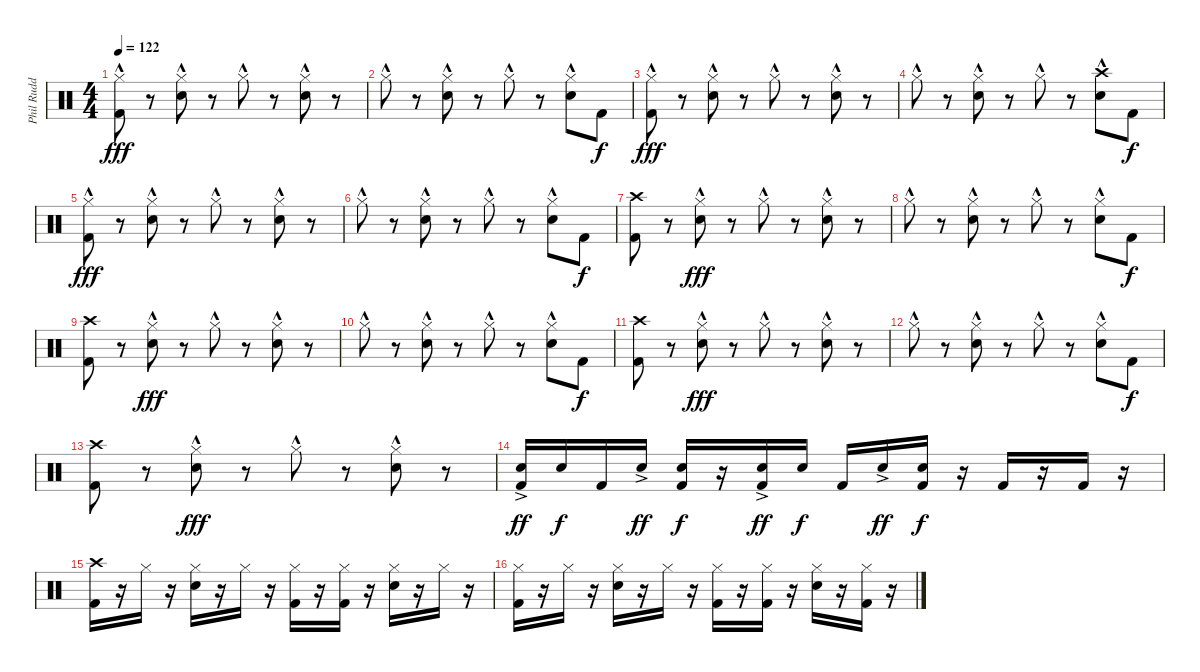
\track ("Phil Rudd" "Phil Rudd") {instrument percussion}
\staff {score}
\articulation defaults
\ts (4 4)
\tempo 122
\clef neutral
\ks c
("Hi-Hat (closed)"{hac} "Kick (hit) 2").8{dy fff} r.8 ("Hi-Hat (closed)"{hac} "Snare (hit) 2").8 r.8 "Hi-Hat (closed)"{hac}.8 r.8 ("Hi-Hat (closed)"{hac} "Snare (hit) 2").8 r.8 |
"Hi-Hat (closed)"{hac}.8 r.8 ("Hi-Hat (closed)"{hac} "Snare (hit) 2").8 r.8 "Hi-Hat (closed)"{hac}.8 r.8 ("Hi-Hat (closed)"{hac} "Snare (hit) 2").8 "Kick (hit) 2".8{dy f} |
("Hi-Hat (closed)"{hac} "Kick (hit) 2").8{dy fff} r.8 ("Hi-Hat (closed)"{hac} "Snare (hit) 2").8 r.8 "Hi-Hat (closed)"{hac}.8 r.8 ("Hi-Hat (closed)"{hac} "Snare (hit) 2").8 r.8 |
"Hi-Hat (closed)"{hac}.8 r.8 ("Hi-Hat (closed)"{hac} "Snare (hit) 2").8 r.8 "Hi-Hat (closed)"{hac}.8 r.8 ("Crash high (hit)"{hac} "Snare (hit) 2").8 "Kick (hit) 2".8{dy f} |
("Hi-Hat (closed)"{hac} "Kick (hit) 2").8{dy fff} r.8 ("Hi-Hat (closed)"{hac} "Snare (hit) 2").8 r.8 "Hi-Hat (closed)"{hac}.8 r.8 ("Hi-Hat (closed)"{hac} "Snare (hit) 2").8 r.8 |
"Hi-Hat (closed)"{hac}.8 r.8 ("Hi-Hat (closed)"{hac} "Snare (hit) 2").8 r.8 "Hi-Hat (closed)"{hac}.8 r.8 ("Hi-Hat (closed)"{hac} "Snare (hit) 2").8 "Kick (hit) 2".8{dy f} |
("Crash high (hit)" "Kick (hit) 2").8 r.8 ("Hi-Hat (closed)"{hac} "Snare (hit) 2").8{dy fff} r.8 "Hi-Hat (closed)"{hac}.8 r.8 ("Hi-Hat (closed)"{hac} "Snare (hit) 2").8 r.8 |
"Hi-Hat (closed)"{hac}.8 r.8 ("Hi-Hat (closed)"{hac} "Snare (hit) 2").8 r.8 "Hi-Hat (closed)"{hac}.8 r.8 ("Hi-Hat (closed)"{hac} "Snare (hit) 2").8 "Kick (hit) 2".8{dy f} |
("Crash high (hit)" "Kick (hit) 2").8 r.8 ("Hi-Hat (closed)"{hac} "Snare (hit) 2").8{dy fff} r.8 "Hi-Hat (closed)"{hac}.8 r.8 ("Hi-Hat (closed)"{hac} "Snare (hit) 2").8 r.8 |
"Hi-Hat (closed)"{hac}.8 r.8 ("Hi-Hat (closed)"{hac} "Snare (hit) 2").8 r.8 "Hi-Hat (closed)"{hac}.8 r.8 ("Hi-Hat (closed)"{hac} "Snare (hit) 2").8 "Kick (hit) 2".8{dy f} |
("Crash high (hit)" "Kick (hit) 2").8 r.8 ("Hi-Hat (closed)"{hac} "Snare (hit) 2").8{dy fff} r.8 "Hi-Hat (closed)"{hac}.8 r.8 ("Hi-Hat (closed)"{hac} "Snare (hit) 2").8 r.8 |
"Hi-Hat (closed)"{hac}.8 r.8 ("Hi-Hat (closed)"{hac} "Snare (hit) 2").8 r.8 "Hi-Hat (closed)"{hac}.8 r.8 ("Hi-Hat (closed)"{hac} "Snare (hit) 2").8 "Kick (hit) 2".8{dy f} |
("Crash high (hit)" "Kick (hit) 2").8 r.8 ("Hi-Hat (closed)"{hac} "Snare (hit) 2").8{dy fff} r.8 "Hi-Hat (closed)"{hac}.8 r.8 ("Hi-Hat (closed)"{hac} "Snare (hit) 2").8 r.8 |
("Snare (hit) 2"{ac} "Kick (hit) 2").16{dy ff} "Snare (hit) 2".16{dy f} "Kick (hit) 2".16 "Snare (hit) 2"{ac}.16{dy ff} ("Snare (hit) 2" "Kick (hit) 2").16{dy f} r.16 ("Snare (hit) 2"{ac} "Kick (hit) 2").16{dy ff} "Snare (hit) 2".16{dy f} "Kick (hit) 2".16 "Snare (hit) 2"{ac}.16{dy ff} ("Snare (hit) 2" "Kick (hit) 2").16{dy f} r.16 "Kick (hit) 2".16 r.16 "Kick (hit) 2".16 r.16 |
("Crash high (hit)" "Kick (hit) 2").16 r.16 "Hi-Hat (closed)".16 r.16 ("Hi-Hat (closed)" "Snare (hit) 2").16 r.16 "Hi-Hat (closed)".16 r.16 ("Hi-Hat (closed)" "Kick (hit) 2").16 r.16 ("Hi-Hat (closed)" "Kick (hit) 2").16 r.16 ("Hi-Hat (closed)" "Snare (hit) 2").16 r.16 "Hi-Hat (closed)".16 r.16 |
("Hi-Hat (closed)" "Kick (hit) 2").16 r.16 "Hi-Hat (closed)".16 r.16 ("Hi-Hat (closed)" "Snare (hit) 2").16 r.16 "Hi-Hat (closed)".16 r.16 ("Hi-Hat (closed)" "Kick (hit) 2").16 r.16 ("Hi-Hat (closed)" "Kick (hit) 2").16 r.16 ("Hi-Hat (closed)" "Snare (hit) 2").16 r.16 ("Hi-Hat (closed)" "Kick (hit) 2").16 r.16
